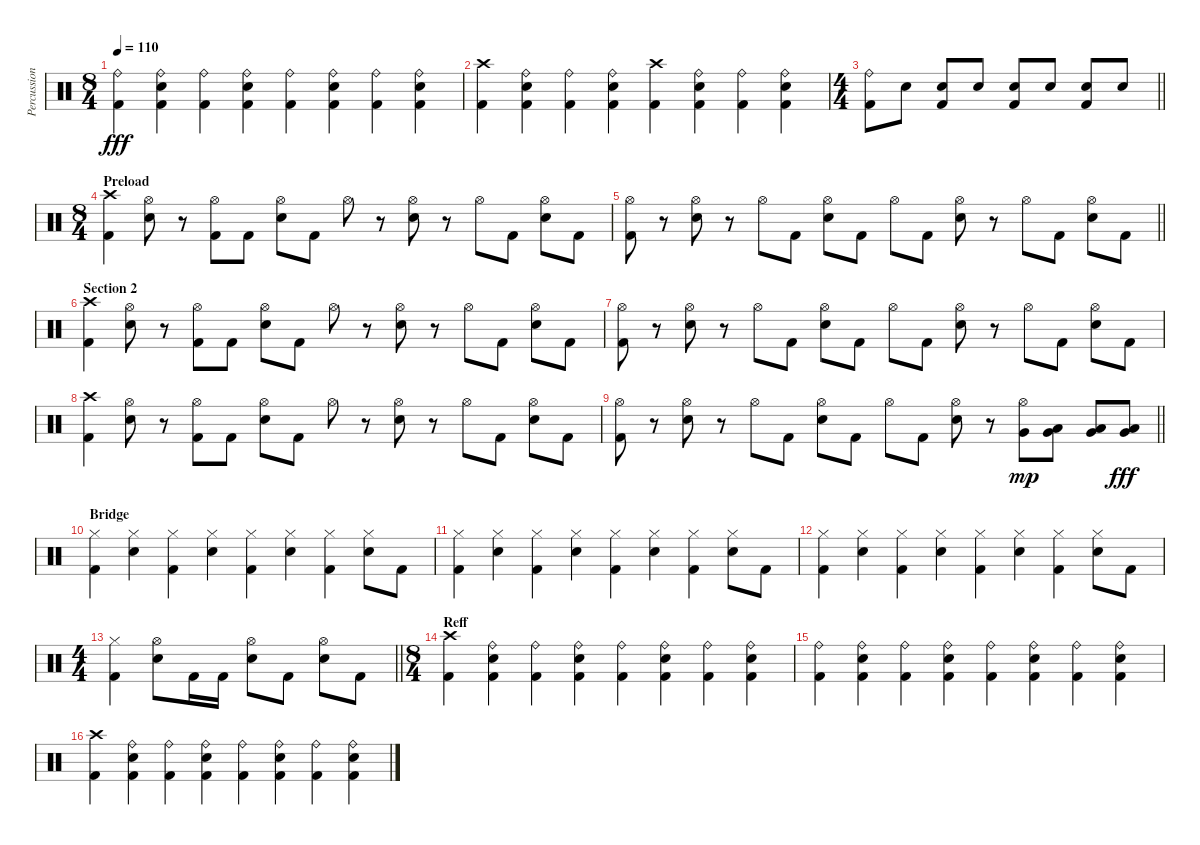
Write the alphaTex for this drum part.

\track ("Percussion" "Percussion") {instrument percussion}
\staff {score}
\articulation defaults
\ts (8 4)
\tempo 110
\clef neutral
\ks c
("Ride (bell)" "Kick (hit) 2").4{dy fff} ("Ride (bell)" "Electric Snare (hit)" "Kick (hit) 2").4 ("Ride (bell)" "Kick (hit) 2").4 ("Ride (bell)" "Electric Snare (hit)" "Kick (hit) 2").4 ("Ride (bell)" "Kick (hit) 2").4 ("Ride (bell)" "Electric Snare (hit)" "Kick (hit) 2").4 ("Ride (bell)" "Kick (hit) 2").4 ("Ride (bell)" "Electric Snare (hit)" "Kick (hit) 2").4 |
("Crash high (hit)" "Kick (hit) 2").4 ("Ride (bell)" "Electric Snare (hit)" "Kick (hit) 2").4 ("Ride (bell)" "Kick (hit) 2").4 ("Ride (bell)" "Electric Snare (hit)" "Kick (hit) 2").4 ("Crash high (hit)" "Kick (hit) 2").4 ("Ride (bell)" "Electric Snare (hit)" "Kick (hit) 2").4 ("Ride (bell)" "Kick (hit) 2").4 ("Ride (bell)" "Electric Snare (hit)" "Kick (hit) 2").4 |
\ts (4 4)
\barLineRight lightlight
("Ride (bell)" "Kick (hit) 2").8 "Electric Snare (hit)".8 ("Electric Snare (hit)" "Kick (hit) 2").8 "Electric Snare (hit)".8 ("Electric Snare (hit)" "Kick (hit) 2").8 "Electric Snare (hit)".8 ("Electric Snare (hit)" "Kick (hit) 2").8 "Electric Snare (hit)".8 |
\ts (8 4)
\section ("" "Preload")
("Crash high (hit)" "Kick (hit) 2").4 ("Hi-Hat (open)" "Electric Snare (hit)").8 r.8 ("Hi-Hat (open)" "Kick (hit) 2").8 "Kick (hit) 2".8 ("Hi-Hat (open)" "Electric Snare (hit)").8 "Kick (hit) 2".8 "Hi-Hat (open)".8 r.8 ("Hi-Hat (open)" "Electric Snare (hit)").8 r.8 "Hi-Hat (open)".8 "Kick (hit) 2".8 ("Hi-Hat (open)" "Electric Snare (hit)").8 "Kick (hit) 2".8 |
\barLineRight lightlight
("Hi-Hat (open)" "Kick (hit) 2").8 r.8 ("Hi-Hat (open)" "Electric Snare (hit)").8 r.8 "Hi-Hat (open)".8 "Kick (hit) 2".8 ("Hi-Hat (open)" "Electric Snare (hit)").8 "Kick (hit) 2".8 "Hi-Hat (open)".8 "Kick (hit) 2".8 ("Hi-Hat (open)" "Electric Snare (hit)").8 r.8 "Hi-Hat (open)".8 "Kick (hit) 2".8 ("Hi-Hat (open)" "Electric Snare (hit)").8 "Kick (hit) 2".8 |
\section ("" "Section 2")
("Crash high (hit)" "Kick (hit) 2").4 ("Hi-Hat (open)" "Electric Snare (hit)").8 r.8 ("Hi-Hat (open)" "Kick (hit) 2").8 "Kick (hit) 2".8 ("Hi-Hat (open)" "Electric Snare (hit)").8 "Kick (hit) 2".8 "Hi-Hat (open)".8 r.8 ("Hi-Hat (open)" "Electric Snare (hit)").8 r.8 "Hi-Hat (open)".8 "Kick (hit) 2".8 ("Hi-Hat (open)" "Electric Snare (hit)").8 "Kick (hit) 2".8 |
("Hi-Hat (open)" "Kick (hit) 2").8 r.8 ("Hi-Hat (open)" "Electric Snare (hit)").8 r.8 "Hi-Hat (open)".8 "Kick (hit) 2".8 ("Hi-Hat (open)" "Electric Snare (hit)").8 "Kick (hit) 2".8 "Hi-Hat (open)".8 "Kick (hit) 2".8 ("Hi-Hat (open)" "Electric Snare (hit)").8 r.8 "Hi-Hat (open)".8 "Kick (hit) 2".8 ("Hi-Hat (open)" "Electric Snare (hit)").8 "Kick (hit) 2".8 |
("Crash high (hit)" "Kick (hit) 2").4 ("Hi-Hat (open)" "Electric Snare (hit)").8 r.8 ("Hi-Hat (open)" "Kick (hit) 2").8 "Kick (hit) 2".8 ("Hi-Hat (open)" "Electric Snare (hit)").8 "Kick (hit) 2".8 "Hi-Hat (open)".8 r.8 ("Hi-Hat (open)" "Electric Snare (hit)").8 r.8 "Hi-Hat (open)".8 "Kick (hit) 2".8 ("Hi-Hat (open)" "Electric Snare (hit)").8 "Kick (hit) 2".8 |
\barLineRight lightlight
("Hi-Hat (open)" "Kick (hit) 2").8 r.8 ("Hi-Hat (open)" "Electric Snare (hit)").8 r.8 "Hi-Hat (open)".8 "Kick (hit) 2".8 ("Hi-Hat (open)" "Electric Snare (hit)").8 "Kick (hit) 2".8 "Hi-Hat (open)".8 "Kick (hit) 2".8 ("Hi-Hat (open)" "Electric Snare (hit)").8 r.8 ("Hi-Hat (open)" "Very Low Tom (hit)").8{dy mp} ("Very Low Tom (hit)" "Low Tom (hit)").8 ("Very Low Tom (hit)" "Low Tom (hit)").8 ("Very Low Tom (hit)" "Low Tom (hit)").8{dy fff} |
\section ("" "Bridge")
("Hi-Hat (closed)" "Kick (hit) 2").4 ("Hi-Hat (closed)" "Electric Snare (hit)").4 ("Hi-Hat (closed)" "Kick (hit) 2").4 ("Hi-Hat (closed)" "Electric Snare (hit)").4 ("Hi-Hat (closed)" "Kick (hit) 2").4 ("Hi-Hat (closed)" "Electric Snare (hit)").4 ("Hi-Hat (closed)" "Kick (hit) 2").4 ("Hi-Hat (closed)" "Electric Snare (hit)").8 "Kick (hit) 2".8 |
("Hi-Hat (closed)" "Kick (hit) 2").4 ("Hi-Hat (closed)" "Electric Snare (hit)").4 ("Hi-Hat (closed)" "Kick (hit) 2").4 ("Hi-Hat (closed)" "Electric Snare (hit)").4 ("Hi-Hat (closed)" "Kick (hit) 2").4 ("Hi-Hat (closed)" "Electric Snare (hit)").4 ("Hi-Hat (closed)" "Kick (hit) 2").4 ("Hi-Hat (closed)" "Electric Snare (hit)").8 "Kick (hit) 2".8 |
("Hi-Hat (closed)" "Kick (hit) 2").4 ("Hi-Hat (closed)" "Electric Snare (hit)").4 ("Hi-Hat (closed)" "Kick (hit) 2").4 ("Hi-Hat (closed)" "Electric Snare (hit)").4 ("Hi-Hat (closed)" "Kick (hit) 2").4 ("Hi-Hat (closed)" "Electric Snare (hit)").4 ("Hi-Hat (closed)" "Kick (hit) 2").4 ("Hi-Hat (closed)" "Electric Snare (hit)").8 "Kick (hit) 2".8 |
\ts (4 4)
\barLineRight lightlight
("Hi-Hat (closed)" "Kick (hit) 2").4 ("Hi-Hat (open)" "Electric Snare (hit)").8 "Kick (hit) 2".16 "Kick (hit) 2".16 ("Hi-Hat (open)" "Electric Snare (hit)").8 "Kick (hit) 2".8 ("Hi-Hat (open)" "Electric Snare (hit)").8 "Kick (hit) 2".8 |
\ts (8 4)
\section ("" "Reff")
("Crash high (hit)" "Kick (hit) 2").4 ("Ride (bell)" "Electric Snare (hit)" "Kick (hit) 2").4 ("Ride (bell)" "Kick (hit) 2").4 ("Ride (bell)" "Electric Snare (hit)" "Kick (hit) 2").4 ("Ride (bell)" "Kick (hit) 2").4 ("Ride (bell)" "Electric Snare (hit)" "Kick (hit) 2").4 ("Ride (bell)" "Kick (hit) 2").4 ("Ride (bell)" "Electric Snare (hit)" "Kick (hit) 2").4 |
("Ride (bell)" "Kick (hit) 2").4 ("Ride (bell)" "Electric Snare (hit)" "Kick (hit) 2").4 ("Ride (bell)" "Kick (hit) 2").4 ("Ride (bell)" "Electric Snare (hit)" "Kick (hit) 2").4 ("Ride (bell)" "Kick (hit) 2").4 ("Ride (bell)" "Electric Snare (hit)" "Kick (hit) 2").4 ("Ride (bell)" "Kick (hit) 2").4 ("Ride (bell)" "Electric Snare (hit)" "Kick (hit) 2").4 |
("Crash high (hit)" "Kick (hit) 2").4 ("Ride (bell)" "Electric Snare (hit)" "Kick (hit) 2").4 ("Ride (bell)" "Kick (hit) 2").4 ("Ride (bell)" "Electric Snare (hit)" "Kick (hit) 2").4 ("Ride (bell)" "Kick (hit) 2").4 ("Ride (bell)" "Electric Snare (hit)" "Kick (hit) 2").4 ("Ride (bell)" "Kick (hit) 2").4 ("Ride (bell)" "Electric Snare (hit)" "Kick (hit) 2").4
